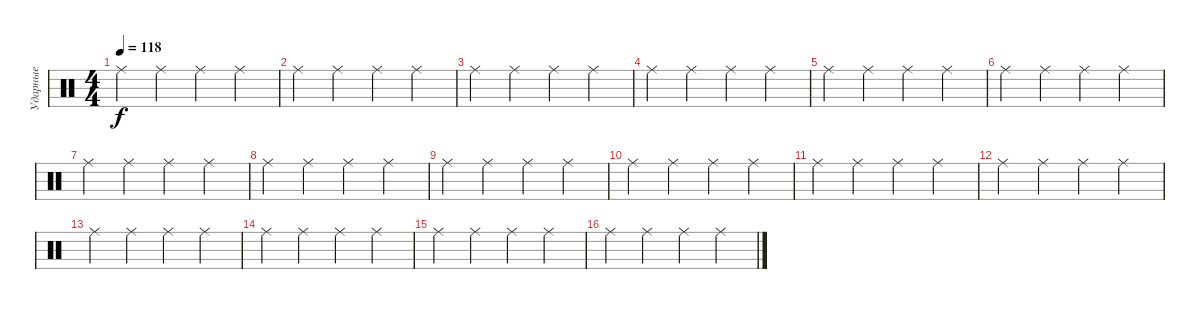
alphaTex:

\track ("Ударные" "Ударные") {instrument percussion}
\staff {score}
\articulation defaults
\ts (4 4)
\tempo 118
\clef neutral
\ks c "Ride (middle)".4{dy f} "Ride (middle)".4 "Ride (middle)".4 "Ride (middle)".4
|
"Ride (middle)".4 "Ride (middle)".4 "Ride (middle)".4 "Ride (middle)".4 |
"Ride (middle)".4 "Ride (middle)".4 "Ride (middle)".4 "Ride (middle)".4 |
"Ride (middle)".4 "Ride (middle)".4 "Ride (middle)".4 "Ride (middle)".4 |
"Ride (middle)".4 "Ride (middle)".4 "Ride (middle)".4 "Ride (middle)".4 |
"Ride (middle)".4 "Ride (middle)".4 "Ride (middle)".4 "Ride (middle)".4 |
"Ride (middle)".4 "Ride (middle)".4 "Ride (middle)".4 "Ride (middle)".4 |
"Ride (middle)".4 "Ride (middle)".4 "Ride (middle)".4 "Ride (middle)".4 |
"Ride (middle)".4 "Ride (middle)".4 "Ride (middle)".4 "Ride (middle)".4 |
"Ride (middle)".4 "Ride (middle)".4 "Ride (middle)".4 "Ride (middle)".4 |
"Ride (middle)".4 "Ride (middle)".4 "Ride (middle)".4 "Ride (middle)".4 |
"Ride (middle)".4 "Ride (middle)".4 "Ride (middle)".4 "Ride (middle)".4 |
"Ride (middle)".4 "Ride (middle)".4 "Ride (middle)".4 "Ride (middle)".4 |
"Ride (middle)".4 "Ride (middle)".4 "Ride (middle)".4 "Ride (middle)".4 |
"Ride (middle)".4 "Ride (middle)".4 "Ride (middle)".4 "Ride (middle)".4 |
"Ride (middle)".4 "Ride (middle)".4 "Ride (middle)".4 "Ride (middle)".4
